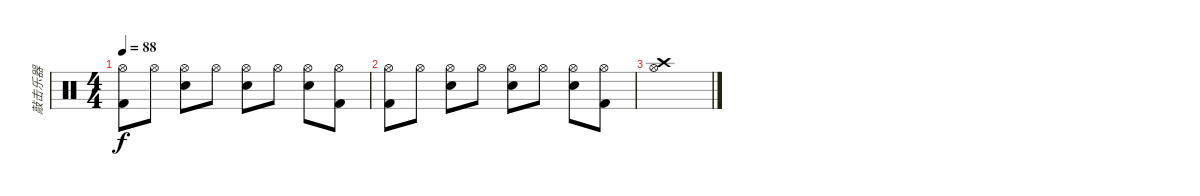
\track ("敲击乐器" "敲击乐器") {instrument percussion}
\staff {score}
\articulation defaults
\ts (4 4)
\tempo 88
\clef neutral
\ks c
("Kick (hit) 2" "Hi-Hat (open)").8{dy f} "Hi-Hat (open)".8 ("Hand Clap (hit)" "Hi-Hat (open)").8 "Hi-Hat (open)".8 ("Electric Snare (hit)" "Hi-Hat (open)").8 "Hi-Hat (open)".8 ("Hand Clap (hit)" "Hi-Hat (open)").8 ("Kick (hit) 2" "Hi-Hat (open)").8 |
("Kick (hit) 2" "Hi-Hat (open)").8 "Hi-Hat (open)".8 ("Hand Clap (hit)" "Hi-Hat (open)").8 "Hi-Hat (open)".8 ("Electric Snare (hit)" "Hi-Hat (open)").8 "Hi-Hat (open)".8 ("Hand Clap (hit)" "Hi-Hat (open)").8 ("Kick (hit) 2" "Hi-Hat (open)").8 |
("Crash high (hit)" "Hi-Hat (open)").1
